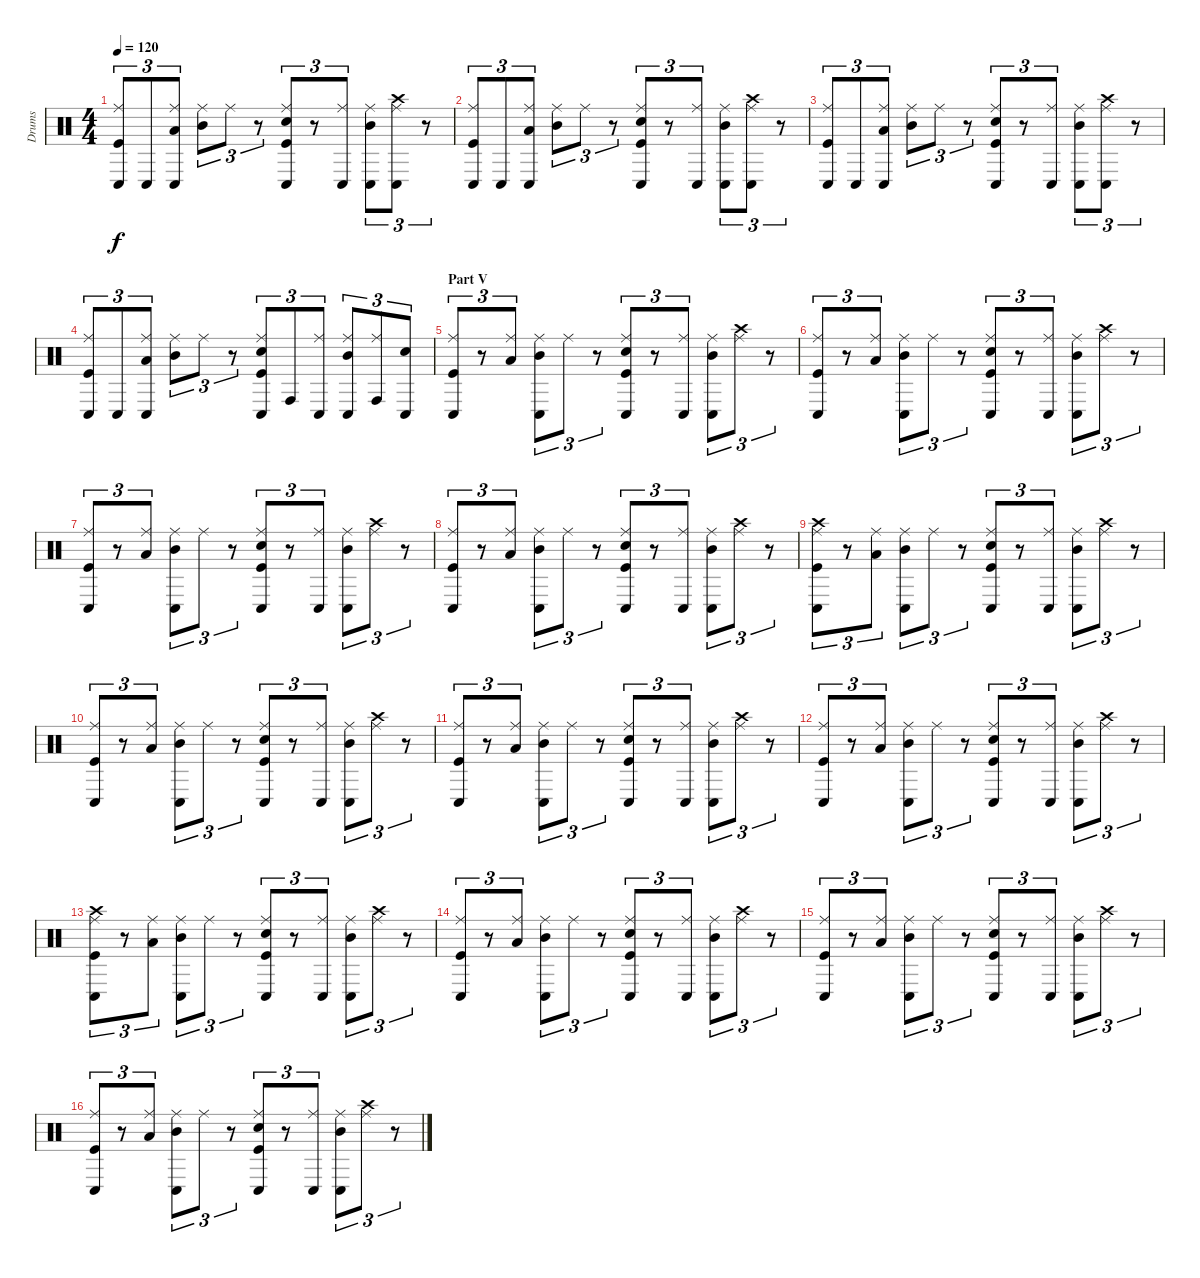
\track ("Drums" "Drums") {instrument percussion}
\staff {score}
\articulation defaults
\ts (4 4)
\tempo 120
\clef neutral
\ks c
("Kick (hit)" "Ride (middle)" "Conga low (hit)").8{tu (3 2) dy f} "Conga low (hit)".8{tu (3 2)} ("Low Floor Tom (hit)" "Ride (middle)" "Conga low (hit)").8{tu (3 2)} ("Mid Tom (hit)" "Ride (middle)").8{tu (3 2)} "Ride (middle)".8{tu (3 2)} r.8{tu (3 2)} ("Kick (hit)" "Snare (hit) 2" "Ride (middle)" "Conga low (hit)").8{tu (3 2)} r.8{tu (3 2)} ("Ride (middle)" "Conga low (hit)").8{tu (3 2)} ("Mid Tom (hit)" "Ride (middle)" "Conga low (hit)").8{tu (3 2)} ("Ride (middle)" "Crash high (hit)" "Conga low (hit)").8{tu (3 2)} r.8{tu (3 2)} |
("Kick (hit)" "Ride (middle)" "Conga low (hit)").8{tu (3 2)} "Conga low (hit)".8{tu (3 2)} ("Low Floor Tom (hit)" "Ride (middle)" "Conga low (hit)").8{tu (3 2)} ("Mid Tom (hit)" "Ride (middle)").8{tu (3 2)} "Ride (middle)".8{tu (3 2)} r.8{tu (3 2)} ("Kick (hit)" "Snare (hit) 2" "Ride (middle)" "Conga low (hit)").8{tu (3 2)} r.8{tu (3 2)} ("Ride (middle)" "Conga low (hit)").8{tu (3 2)} ("Mid Tom (hit)" "Ride (middle)" "Conga low (hit)").8{tu (3 2)} ("Ride (middle)" "Crash high (hit)" "Conga low (hit)").8{tu (3 2)} r.8{tu (3 2)} |
("Kick (hit)" "Ride (middle)" "Conga low (hit)").8{tu (3 2)} "Conga low (hit)".8{tu (3 2)} ("Low Floor Tom (hit)" "Ride (middle)" "Conga low (hit)").8{tu (3 2)} ("Mid Tom (hit)" "Ride (middle)").8{tu (3 2)} "Ride (middle)".8{tu (3 2)} r.8{tu (3 2)} ("Kick (hit)" "Snare (hit) 2" "Ride (middle)" "Conga low (hit)").8{tu (3 2)} r.8{tu (3 2)} ("Ride (middle)" "Conga low (hit)").8{tu (3 2)} ("Mid Tom (hit)" "Ride (middle)" "Conga low (hit)").8{tu (3 2)} ("Ride (middle)" "Crash high (hit)" "Conga low (hit)").8{tu (3 2)} r.8{tu (3 2)} |
("Kick (hit)" "Ride (middle)" "Conga low (hit)").8{tu (3 2)} "Conga low (hit)".8{tu (3 2)} ("Low Floor Tom (hit)" "Ride (middle)" "Conga low (hit)").8{tu (3 2)} ("Mid Tom (hit)" "Ride (middle)").8{tu (3 2)} "Ride (middle)".8{tu (3 2)} r.8{tu (3 2)} ("Kick (hit)" "Snare (hit) 2" "Ride (middle)" "Conga low (hit)").8{tu (3 2)} "Conga high (hit)".8{tu (3 2)} ("Ride (middle)" "Conga low (hit)").8{tu (3 2)} ("Mid Tom (hit)" "Ride (middle)" "Conga low (hit)").8{tu (3 2)} ("Ride (middle)" "Conga high (hit)").8{tu (3 2)} ("Snare (hit) 2" "Conga low (hit)").8{tu (3 2)} |
\section ("" "Part V")
("Kick (hit)" "Ride (middle)" "Conga low (hit)").8{tu (3 2)} r.8{tu (3 2)} ("Low Floor Tom (hit)" "Ride (middle)").8{tu (3 2)} ("Mid Tom (hit)" "Ride (middle)" "Conga low (hit)").8{tu (3 2)} "Ride (middle)".8{tu (3 2)} r.8{tu (3 2)} ("Kick (hit)" "Snare (hit) 2" "Ride (middle)" "Conga low (hit)").8{tu (3 2)} r.8{tu (3 2)} ("Ride (middle)" "Conga low (hit)").8{tu (3 2)} ("Mid Tom (hit)" "Ride (middle)" "Conga low (hit)").8{tu (3 2)} ("Ride (middle)" "Crash high (hit)").8{tu (3 2)} r.8{tu (3 2)} |
("Kick (hit)" "Ride (middle)" "Conga low (hit)").8{tu (3 2)} r.8{tu (3 2)} ("Low Floor Tom (hit)" "Ride (middle)").8{tu (3 2)} ("Mid Tom (hit)" "Ride (middle)" "Conga low (hit)").8{tu (3 2)} "Ride (middle)".8{tu (3 2)} r.8{tu (3 2)} ("Kick (hit)" "Snare (hit) 2" "Ride (middle)" "Conga low (hit)").8{tu (3 2)} r.8{tu (3 2)} ("Ride (middle)" "Conga low (hit)").8{tu (3 2)} ("Mid Tom (hit)" "Ride (middle)" "Conga low (hit)").8{tu (3 2)} ("Ride (middle)" "Crash high (hit)").8{tu (3 2)} r.8{tu (3 2)} |
("Kick (hit)" "Ride (middle)" "Conga low (hit)").8{tu (3 2)} r.8{tu (3 2)} ("Low Floor Tom (hit)" "Ride (middle)").8{tu (3 2)} ("Mid Tom (hit)" "Ride (middle)" "Conga low (hit)").8{tu (3 2)} "Ride (middle)".8{tu (3 2)} r.8{tu (3 2)} ("Kick (hit)" "Snare (hit) 2" "Ride (middle)" "Conga low (hit)").8{tu (3 2)} r.8{tu (3 2)} ("Ride (middle)" "Conga low (hit)").8{tu (3 2)} ("Mid Tom (hit)" "Ride (middle)" "Conga low (hit)").8{tu (3 2)} ("Ride (middle)" "Crash high (hit)").8{tu (3 2)} r.8{tu (3 2)} |
("Kick (hit)" "Ride (middle)" "Conga low (hit)").8{tu (3 2)} r.8{tu (3 2)} ("Low Floor Tom (hit)" "Ride (middle)").8{tu (3 2)} ("Mid Tom (hit)" "Ride (middle)" "Conga low (hit)").8{tu (3 2)} "Ride (middle)".8{tu (3 2)} r.8{tu (3 2)} ("Kick (hit)" "Snare (hit) 2" "Ride (middle)" "Conga low (hit)").8{tu (3 2)} r.8{tu (3 2)} ("Ride (middle)" "Conga low (hit)").8{tu (3 2)} ("Mid Tom (hit)" "Ride (middle)" "Conga low (hit)").8{tu (3 2)} ("Ride (middle)" "Crash high (hit)").8{tu (3 2)} r.8{tu (3 2)} |
("Kick (hit)" "Ride (middle)" "Crash high (hit)" "Conga low (hit)").8{tu (3 2)} r.8{tu (3 2)} ("Low Floor Tom (hit)" "Ride (middle)").8{tu (3 2)} ("Mid Tom (hit)" "Ride (middle)" "Conga low (hit)").8{tu (3 2)} "Ride (middle)".8{tu (3 2)} r.8{tu (3 2)} ("Kick (hit)" "Snare (hit) 2" "Ride (middle)" "Conga low (hit)").8{tu (3 2)} r.8{tu (3 2)} ("Ride (middle)" "Conga low (hit)").8{tu (3 2)} ("Mid Tom (hit)" "Ride (middle)" "Conga low (hit)").8{tu (3 2)} ("Ride (middle)" "Crash high (hit)").8{tu (3 2)} r.8{tu (3 2)} |
("Kick (hit)" "Ride (middle)" "Conga low (hit)").8{tu (3 2)} r.8{tu (3 2)} ("Low Floor Tom (hit)" "Ride (middle)").8{tu (3 2)} ("Mid Tom (hit)" "Ride (middle)" "Conga low (hit)").8{tu (3 2)} "Ride (middle)".8{tu (3 2)} r.8{tu (3 2)} ("Kick (hit)" "Snare (hit) 2" "Ride (middle)" "Conga low (hit)").8{tu (3 2)} r.8{tu (3 2)} ("Ride (middle)" "Conga low (hit)").8{tu (3 2)} ("Mid Tom (hit)" "Ride (middle)" "Conga low (hit)").8{tu (3 2)} ("Ride (middle)" "Crash high (hit)").8{tu (3 2)} r.8{tu (3 2)} |
("Kick (hit)" "Ride (middle)" "Conga low (hit)").8{tu (3 2)} r.8{tu (3 2)} ("Low Floor Tom (hit)" "Ride (middle)").8{tu (3 2)} ("Mid Tom (hit)" "Ride (middle)" "Conga low (hit)").8{tu (3 2)} "Ride (middle)".8{tu (3 2)} r.8{tu (3 2)} ("Kick (hit)" "Snare (hit) 2" "Ride (middle)" "Conga low (hit)").8{tu (3 2)} r.8{tu (3 2)} ("Ride (middle)" "Conga low (hit)").8{tu (3 2)} ("Mid Tom (hit)" "Ride (middle)" "Conga low (hit)").8{tu (3 2)} ("Ride (middle)" "Crash high (hit)").8{tu (3 2)} r.8{tu (3 2)} |
("Kick (hit)" "Ride (middle)" "Conga low (hit)").8{tu (3 2)} r.8{tu (3 2)} ("Low Floor Tom (hit)" "Ride (middle)").8{tu (3 2)} ("Mid Tom (hit)" "Ride (middle)" "Conga low (hit)").8{tu (3 2)} "Ride (middle)".8{tu (3 2)} r.8{tu (3 2)} ("Kick (hit)" "Snare (hit) 2" "Ride (middle)" "Conga low (hit)").8{tu (3 2)} r.8{tu (3 2)} ("Ride (middle)" "Conga low (hit)").8{tu (3 2)} ("Mid Tom (hit)" "Ride (middle)" "Conga low (hit)").8{tu (3 2)} ("Ride (middle)" "Crash high (hit)").8{tu (3 2)} r.8{tu (3 2)} |
("Kick (hit)" "Ride (middle)" "Crash high (hit)" "Conga low (hit)").8{tu (3 2)} r.8{tu (3 2)} ("Low Floor Tom (hit)" "Ride (middle)").8{tu (3 2)} ("Mid Tom (hit)" "Ride (middle)" "Conga low (hit)").8{tu (3 2)} "Ride (middle)".8{tu (3 2)} r.8{tu (3 2)} ("Kick (hit)" "Snare (hit) 2" "Ride (middle)" "Conga low (hit)").8{tu (3 2)} r.8{tu (3 2)} ("Ride (middle)" "Conga low (hit)").8{tu (3 2)} ("Mid Tom (hit)" "Ride (middle)" "Conga low (hit)").8{tu (3 2)} ("Ride (middle)" "Crash high (hit)").8{tu (3 2)} r.8{tu (3 2)} |
("Kick (hit)" "Ride (middle)" "Conga low (hit)").8{tu (3 2)} r.8{tu (3 2)} ("Low Floor Tom (hit)" "Ride (middle)").8{tu (3 2)} ("Mid Tom (hit)" "Ride (middle)" "Conga low (hit)").8{tu (3 2)} "Ride (middle)".8{tu (3 2)} r.8{tu (3 2)} ("Kick (hit)" "Snare (hit) 2" "Ride (middle)" "Conga low (hit)").8{tu (3 2)} r.8{tu (3 2)} ("Ride (middle)" "Conga low (hit)").8{tu (3 2)} ("Mid Tom (hit)" "Ride (middle)" "Conga low (hit)").8{tu (3 2)} ("Ride (middle)" "Crash high (hit)").8{tu (3 2)} r.8{tu (3 2)} |
("Kick (hit)" "Ride (middle)" "Conga low (hit)").8{tu (3 2)} r.8{tu (3 2)} ("Low Floor Tom (hit)" "Ride (middle)").8{tu (3 2)} ("Mid Tom (hit)" "Ride (middle)" "Conga low (hit)").8{tu (3 2)} "Ride (middle)".8{tu (3 2)} r.8{tu (3 2)} ("Kick (hit)" "Snare (hit) 2" "Ride (middle)" "Conga low (hit)").8{tu (3 2)} r.8{tu (3 2)} ("Ride (middle)" "Conga low (hit)").8{tu (3 2)} ("Mid Tom (hit)" "Ride (middle)" "Conga low (hit)").8{tu (3 2)} ("Ride (middle)" "Crash high (hit)").8{tu (3 2)} r.8{tu (3 2)} |
("Kick (hit)" "Ride (middle)" "Conga low (hit)").8{tu (3 2)} r.8{tu (3 2)} ("Low Floor Tom (hit)" "Ride (middle)").8{tu (3 2)} ("Mid Tom (hit)" "Ride (middle)" "Conga low (hit)").8{tu (3 2)} "Ride (middle)".8{tu (3 2)} r.8{tu (3 2)} ("Kick (hit)" "Snare (hit) 2" "Ride (middle)" "Conga low (hit)").8{tu (3 2)} r.8{tu (3 2)} ("Ride (middle)" "Conga low (hit)").8{tu (3 2)} ("Mid Tom (hit)" "Ride (middle)" "Conga low (hit)").8{tu (3 2)} ("Ride (middle)" "Crash high (hit)").8{tu (3 2)} r.8{tu (3 2)}
